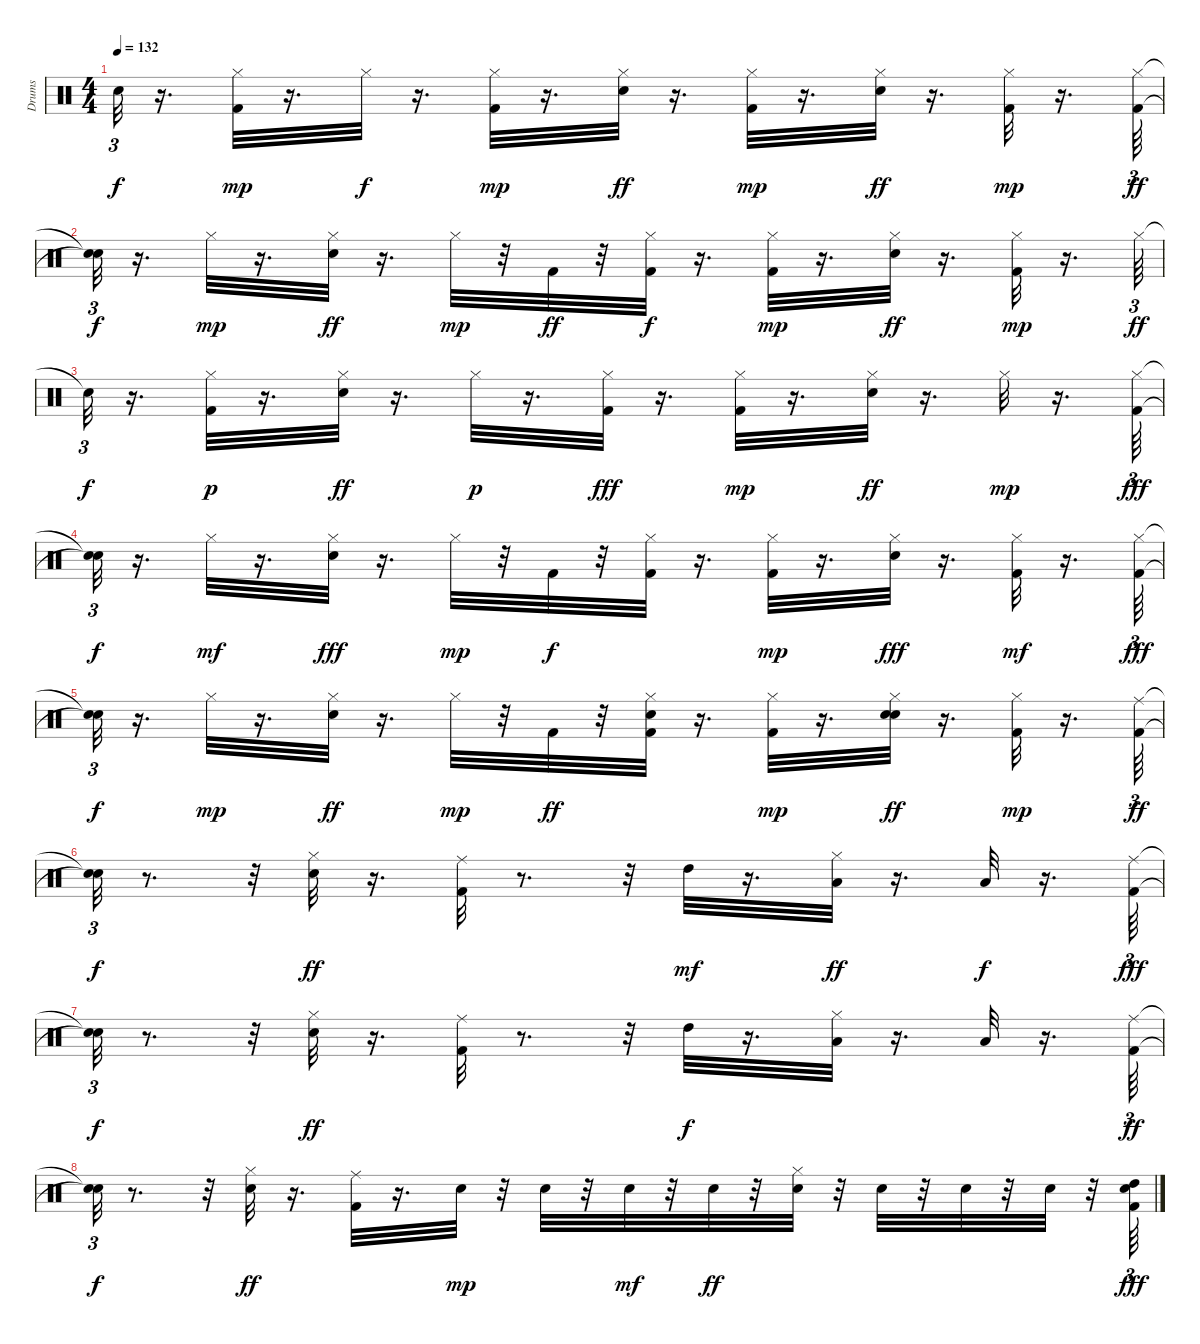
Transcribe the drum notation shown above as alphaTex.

\track ("Drums" "Drums") {instrument percussion}
\staff {score}
\articulation defaults
\ts (4 4)
\tempo 132
\clef neutral
\ks c "Snare (hit)"{t}.32{tu (3 2) dy f}
r.16{d} ("Kick (hit) 2" "Hi-Hat (closed)").32{dy mp} r.16{d} "Hi-Hat (closed)".32{dy f} r.16{d} ("Kick (hit) 2" "Hi-Hat (closed)").32{dy mp} r.16{d} ("Snare (hit) 2" "Hi-Hat (closed)").32{dy ff} r.16{d} ("Kick (hit) 2" "Hi-Hat (closed)").32{dy mp} r.16{d} ("Snare (hit) 2" "Hi-Hat (closed)").32{dy ff} r.16{d} ("Kick (hit) 2" "Hi-Hat (closed)").32{dy mp} r.16{d} ("Kick (hit) 2" "Hi-Hat (closed)").64{tu (3 2) dy ff} |
("Snare (hit)"{t} "Snare (hit)"{t}).32{tu (3 2) dy f} r.16{d} "Hi-Hat (closed)".32{dy mp} r.16{d} ("Snare (hit) 2" "Hi-Hat (closed)").32{dy ff} r.16{d} "Hi-Hat (closed)".32{dy mp} r.32 "Kick (hit) 2".32{dy ff} r.32 ("Kick (hit) 2" "Hi-Hat (closed)").32{dy f} r.16{d} ("Kick (hit) 2" "Hi-Hat (closed)").32{dy mp} r.16{d} ("Snare (hit) 2" "Hi-Hat (closed)").32{dy ff} r.16{d} ("Kick (hit) 2" "Hi-Hat (closed)").32{dy mp} r.16{d} "Hi-Hat (closed)".64{tu (3 2) dy ff} |
"Snare (hit)"{t}.32{tu (3 2) dy f} r.16{d} ("Kick (hit) 2" "Hi-Hat (closed)").32{dy p} r.16{d} ("Snare (hit) 2" "Hi-Hat (closed)").32{dy ff} r.16{d} "Hi-Hat (closed)".32{dy p} r.16{d} ("Kick (hit) 2" "Hi-Hat (closed)").32{dy fff} r.16{d} ("Kick (hit) 2" "Hi-Hat (closed)").32{dy mp} r.16{d} ("Snare (hit) 2" "Hi-Hat (closed)").32{dy ff} r.16{d} "Hi-Hat (closed)".32{dy mp} r.16{d} ("Kick (hit) 2" "Hi-Hat (closed)").64{tu (3 2) dy fff} |
("Snare (hit)"{t} "Snare (hit)"{t}).32{tu (3 2) dy f} r.16{d} "Hi-Hat (closed)".32{dy mf} r.16{d} ("Snare (hit) 2" "Hi-Hat (closed)").32{dy fff} r.16{d} "Hi-Hat (closed)".32{dy mp} r.32 "Kick (hit) 2".32{dy f} r.32 ("Kick (hit) 2" "Hi-Hat (closed)").32 r.16{d} ("Kick (hit) 2" "Hi-Hat (closed)").32{dy mp} r.16{d} ("Snare (hit) 2" "Hi-Hat (closed)").32{dy fff} r.16{d} ("Kick (hit) 2" "Hi-Hat (closed)").32{dy mf} r.16{d} ("Kick (hit) 2" "Hi-Hat (closed)").64{tu (3 2) dy fff} |
("Snare (hit)"{t} "Snare (hit)"{t}).32{tu (3 2) dy f} r.16{d} "Hi-Hat (closed)".32{dy mp} r.16{d} ("Snare (hit) 2" "Hi-Hat (closed)").32{dy ff} r.16{d} "Hi-Hat (closed)".32{dy mp} r.32 "Kick (hit) 2".32{dy ff} r.32 ("Kick (hit) 2" "Snare (hit) 2" "Hi-Hat (closed)").32 r.16{d} ("Kick (hit) 2" "Hi-Hat (closed)").32{dy mp} r.16{d} ("Snare (hit) 2" "Snare (hit) 2" "Hi-Hat (closed)").32{dy ff} r.16{d} ("Kick (hit) 2" "Hi-Hat (closed)").32{dy mp} r.16{d} ("Kick (hit) 2" "Ride (middle)").64{tu (3 2) dy ff} |
("Snare (hit)"{t} "Snare (hit)"{t}).32{tu (3 2) dy f} r.8{d} r.32 ("Snare (hit) 2" "Hi-Hat (closed)").32{dy ff} r.16{d} ("Kick (hit) 2" "Ride (middle)").32 r.8{d} r.32 "High Tom (hit)".32{dy mf} r.16{d} ("Hi-Hat (closed)" "Low Tom (hit)").32{dy ff} r.16{d} "Low Floor Tom (hit)".32{dy f} r.16{d} ("Kick (hit) 2" "Ride (middle)").64{tu (3 2) dy fff} |
("Snare (hit)"{t} "Snare (hit)"{t}).32{tu (3 2) dy f} r.8{d} r.32 ("Snare (hit) 2" "Hi-Hat (closed)").32{dy ff} r.16{d} ("Kick (hit) 2" "Ride (middle)").32 r.8{d} r.32 "High Tom (hit)".32{dy f} r.16{d} ("Hi-Hat (closed)" "Low Tom (hit)").32 r.16{d} "Low Floor Tom (hit)".32 r.16{d} ("Kick (hit) 2" "Ride (middle)").64{tu (3 2) dy ff} |
("Snare (hit)"{t} "Snare (hit)"{t}).32{tu (3 2) dy f} r.8{d} r.32 ("Snare (hit) 2" "Hi-Hat (closed)").32{dy ff} r.16{d} ("Kick (hit) 2" "Ride (middle)").32 r.16{d} "Snare (hit) 2".32{dy mp} r.32 "Snare (hit) 2".32 r.32 "Snare (hit) 2".32{dy mf} r.32 "Snare (hit) 2".32{dy ff} r.32 ("Snare (hit) 2" "Hi-Hat (closed)").32 r.32 "Snare (hit) 2".32 r.32 "Snare (hit) 2".32 r.32 "Snare (hit) 2".32 r.32 ("Kick (hit) 2" "Snare (hit) 2" "High Tom (hit)").64{tu (3 2) dy fff}
